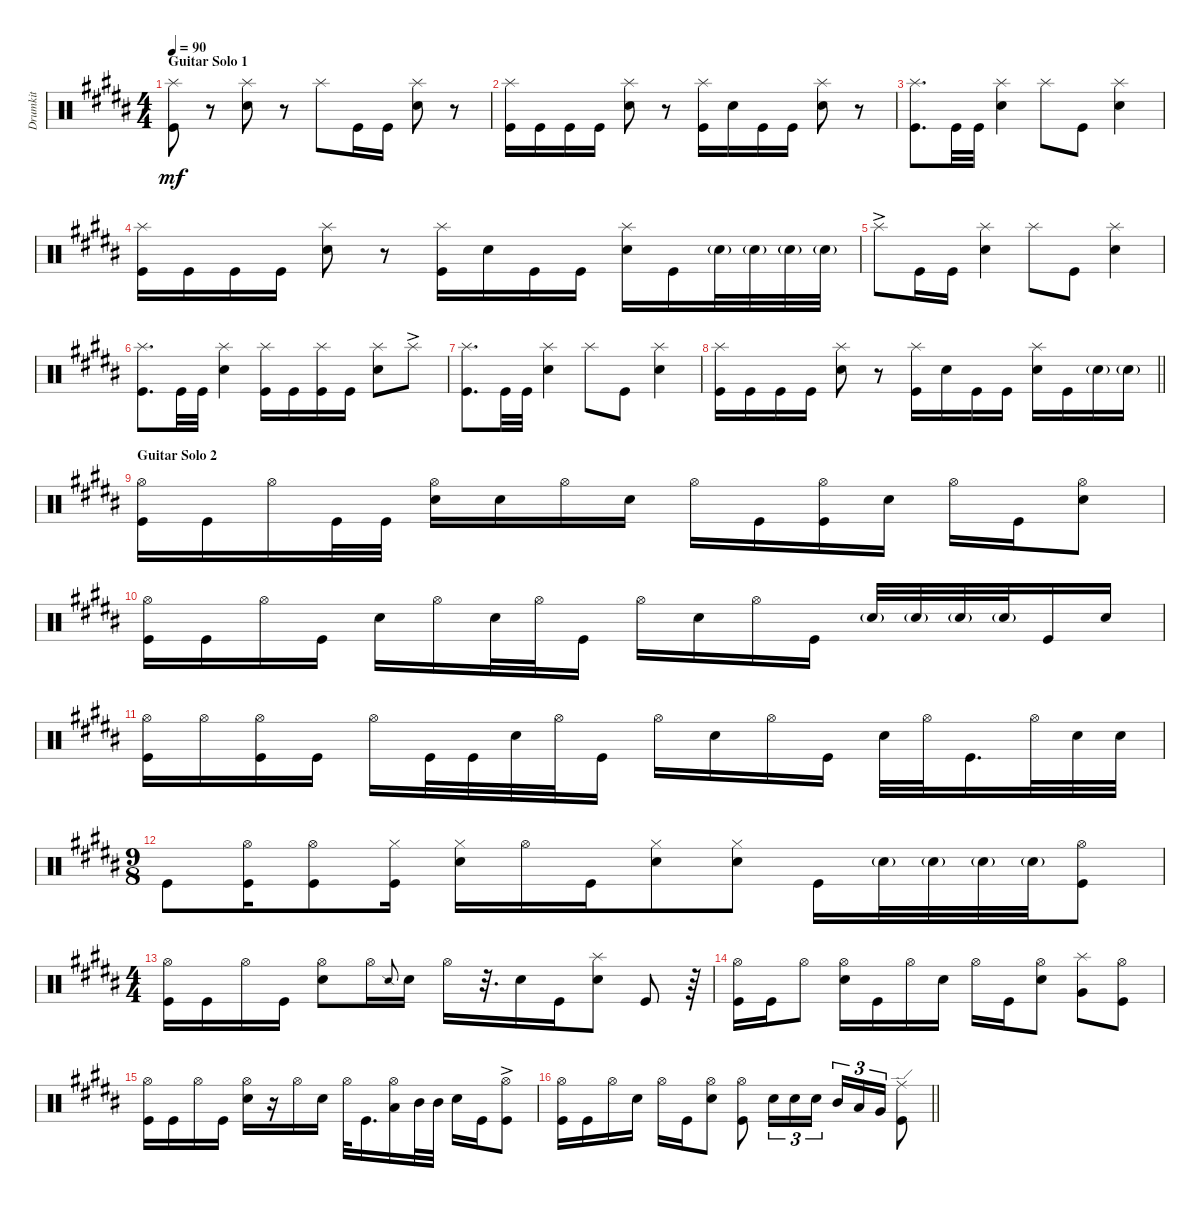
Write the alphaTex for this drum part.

\track ("Drumkit" "Drumkit") {instrument percussion}
\staff {score}
\articulation defaults
\ts (4 4)
\section ("" "Guitar Solo 1")
\tempo 90
\clef neutral
\ks b
("Splash (hit)" "Kick (hit)").8{dy mf} r.8 ("Splash (hit)" "Snare (hit) 2").8 r.8 "Splash (hit)".8 "Kick (hit)".16 "Kick (hit)".16 ("Splash (hit)" "Snare (hit) 2").8 r.8 |
("Splash (hit)" "Kick (hit)").16 "Kick (hit)".16 "Kick (hit)".16 "Kick (hit)".16 ("Splash (hit)" "Snare (hit) 2").8 r.8 ("Splash (hit)" "Kick (hit)").16 "Snare (hit) 2".16 "Kick (hit)".16 "Kick (hit)".16 ("Splash (hit)" "Snare (hit) 2").8 r.8 |
("Splash (hit)" "Kick (hit)").8{d} "Kick (hit)".32 "Kick (hit)".32 ("Snare (hit) 2" "Splash (hit)").4 "Splash (hit)".8 "Kick (hit)".8 ("Snare (hit) 2" "Splash (hit)").4 |
("Splash (hit)" "Kick (hit)").16 "Kick (hit)".16 "Kick (hit)".16 "Kick (hit)".16 ("Splash (hit)" "Snare (hit) 2").8 r.8 ("Splash (hit)" "Kick (hit)").16 "Snare (hit) 2".16 "Kick (hit)".16 "Kick (hit)".16 ("Splash (hit)" "Snare (hit) 2").16 "Kick (hit)".16 "Snare (hit) 2"{g}.32 "Snare (hit) 2"{g}.32 "Snare (hit) 2"{g}.32 "Snare (hit) 2"{g}.32 |
"Splash (hit)"{ac}.8 "Kick (hit)".16 "Kick (hit)".16 ("Splash (hit)" "Snare (hit) 2").4 "Splash (hit)".8 "Kick (hit)".8 ("Splash (hit)" "Snare (hit) 2").4 |
("Splash (hit)" "Kick (hit)").8{d} "Kick (hit)".32 "Kick (hit)".32 ("Snare (hit) 2" "Splash (hit)").4 ("Splash (hit)" "Kick (hit)").16 "Kick (hit)".16 ("Kick (hit)" "Splash (hit)").16 "Kick (hit)".16 ("Snare (hit) 2" "Splash (hit)").8 "Splash (hit)"{ac}.8 |
("Splash (hit)" "Kick (hit)").8{d} "Kick (hit)".32 "Kick (hit)".32 ("Snare (hit) 2" "Splash (hit)").4 "Splash (hit)".8 "Kick (hit)".8 ("Snare (hit) 2" "Splash (hit)").4 |
\barLineRight lightlight
("Splash (hit)" "Kick (hit)").16 "Kick (hit)".16 "Kick (hit)".16 "Kick (hit)".16 ("Splash (hit)" "Snare (hit) 2").8 r.8 ("Splash (hit)" "Kick (hit)").16 "Snare (hit) 2".16 "Kick (hit)".16 "Kick (hit)".16 ("Splash (hit)" "Snare (hit) 2").16 "Kick (hit)".16 "Snare (hit) 2"{g}.16 "Snare (hit) 2"{g}.16 |
\section ("" "Guitar Solo 2")
("Kick (hit)" "Hi-Hat (open)").16 "Kick (hit)".16 "Hi-Hat (open)".16 "Kick (hit)".32 "Kick (hit)".32 ("Hi-Hat (open)" "Snare (hit) 2").16 "Snare (hit) 2".16 "Hi-Hat (open)".16 "Snare (hit) 2".16 "Hi-Hat (open)".16 "Kick (hit)".16 ("Kick (hit)" "Hi-Hat (open)").16 "Snare (hit) 2".16 "Hi-Hat (open)".16 "Kick (hit)".16 ("Hi-Hat (open)" "Snare (hit) 2").8 |
("Kick (hit)" "Hi-Hat (open)").16 "Kick (hit)".16 "Hi-Hat (open)".16 "Kick (hit)".16 "Snare (hit) 2".16 "Hi-Hat (open)".16 "Snare (hit) 2".32 "Hi-Hat (open)".32 "Kick (hit)".16 "Hi-Hat (open)".16 "Snare (hit) 2".16 "Hi-Hat (open)".16 "Kick (hit)".16 "Snare (hit) 2"{g}.32 "Snare (hit) 2"{g}.32 "Snare (hit) 2"{g}.32 "Snare (hit) 2"{g}.32 "Kick (hit)".16 "Snare (hit) 2".16 |
("Hi-Hat (open)" "Kick (hit)").16 "Hi-Hat (open)".16 ("Hi-Hat (open)" "Kick (hit)").16 "Kick (hit)".16 "Hi-Hat (open)".16 "Kick (hit)".32 "Kick (hit)".32 "Snare (hit) 2".32 "Hi-Hat (open)".32 "Kick (hit)".16 "Hi-Hat (open)".16 "Snare (hit) 2".16 "Hi-Hat (open)".16 "Kick (hit)".16 "Snare (hit) 2".32 "Hi-Hat (open)".32 "Kick (hit)".16{d} "Hi-Hat (open)".32 "Snare (hit) 2".32 "Snare (hit) 2".32 |
\ts (9 8)
"Kick (hit)".8 ("Kick (hit)" "Hi-Hat (open)").16 ("Kick (hit)" "Hi-Hat (open)").8 ("Kick (hit)" "Hi-Hat (closed)").16 ("Snare (hit) 2" "Hi-Hat (closed)").16 "Hi-Hat (open)".16 "Kick (hit)".16 ("Snare (hit) 2" "Hi-Hat (closed)").8 ("Snare (hit) 2" "Hi-Hat (closed)").8 "Kick (hit)".16 "Snare (hit) 2"{g}.32 "Snare (hit) 2"{g}.32 "Snare (hit) 2"{g}.32 "Snare (hit) 2"{g}.32 ("Kick (hit)" "Hi-Hat (open)").8 |
\ts (4 4)
("Kick (hit)" "Hi-Hat (open)").16 "Kick (hit)".16 "Hi-Hat (open)".16 "Kick (hit)".16 ("Snare (hit) 2" "Hi-Hat (open)").8 "Hi-Hat (open)".16 "Snare (side stick) 2".8{gr onbeat} "Snare (hit) 2".16 "Hi-Hat (open)".16 r.32{d} "Snare (hit) 2".16 "Kick (hit)".16 ("Snare (hit) 2" "Splash (hit)").8 "Kick (hit)".8 r.64 |
("Kick (hit)" "Hi-Hat (open)").16 "Kick (hit)".16 "Hi-Hat (open)".8 ("Snare (hit) 2" "Hi-Hat (open)").16 "Kick (hit)".16 "Hi-Hat (open)".16 "Snare (hit) 2".16 "Hi-Hat (open)".16 "Kick (hit)".16 ("Snare (hit) 2" "Hi-Hat (open)").8 ("Very Low Tom (hit)" "Splash (hit)").8 ("Kick (hit)" "Hi-Hat (open)").8 |
("Kick (hit)" "Hi-Hat (open)").16 "Kick (hit)".16 "Hi-Hat (open)".16 "Kick (hit)".16 ("Snare (hit) 2" "Hi-Hat (open)").16 r.16 "Hi-Hat (open)".16 "Snare (hit) 2".16 "Hi-Hat (open)".32 "Kick (hit)".16{d} ("Low Tom (hit)" "Hi-Hat (open)").16 "Mid Tom (hit)".32 "Mid Tom (hit)".32 "Snare (hit) 2".16 "Kick (hit)".16 ("Kick (hit)" "Hi-Hat (open)"{ac}).8 |
\barLineRight lightlight
("Kick (hit)" "Hi-Hat (open)").16 "Kick (hit)".16 "Hi-Hat (open)".16 "Snare (hit) 2".16 "Hi-Hat (open)".16 "Kick (hit)".16 ("Snare (hit) 2" "Hi-Hat (open)").8 ("Kick (hit)" "Hi-Hat (open)").8 "Snare (hit) 2".16{tu (3 2)} "Snare (hit) 2".16{tu (3 2)} "Snare (hit) 2".16{tu (3 2)} "Mid Tom (hit)".16{tu (3 2)} "Low Tom (hit)".16{tu (3 2)} "Very Low Tom (hit)".16{tu (3 2)} ("Kick (hit)" "Ride (edge)").8
